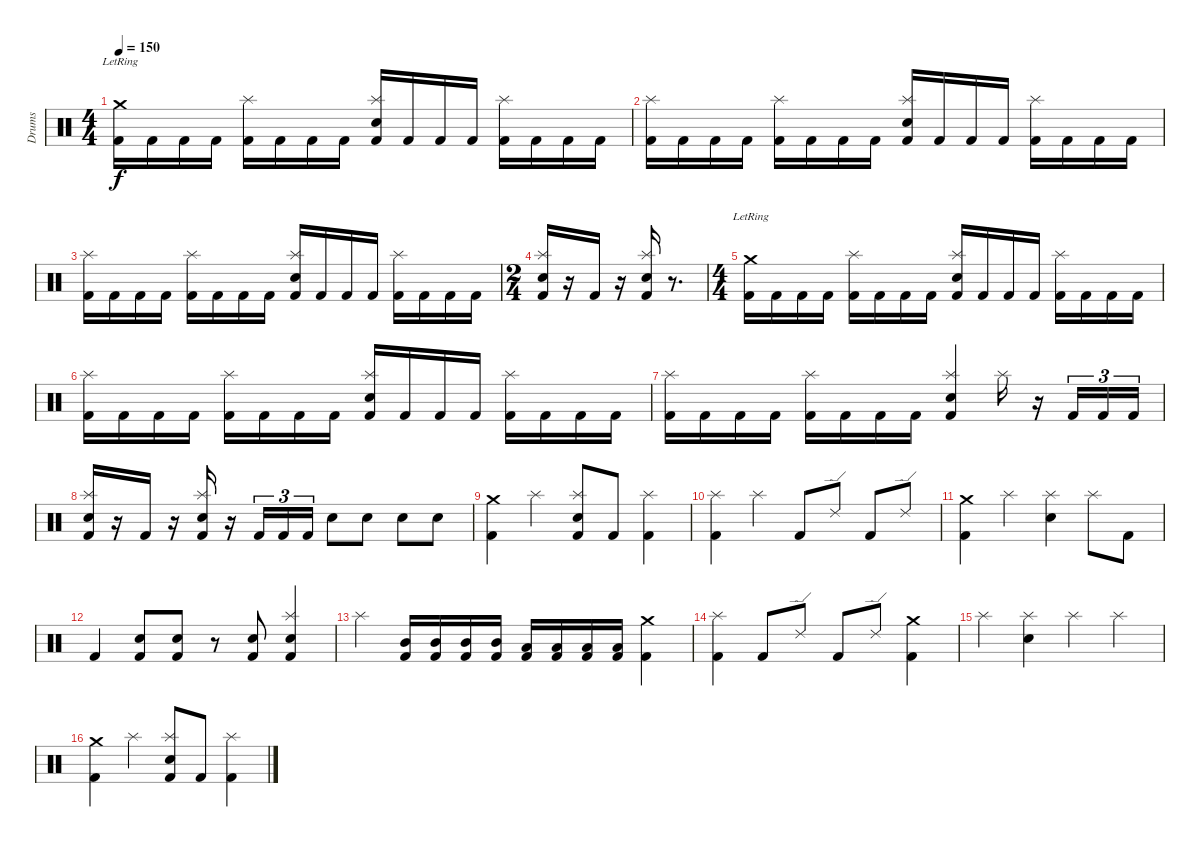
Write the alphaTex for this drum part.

\track ("Drums" "Drums") {instrument percussion}
\staff {score}
\articulation defaults
\ts (4 4)
\tempo 150
\clef neutral
\ks c
("Kick (hit) 2" "Crash medium (hit)"{lr}).16{dy f} "Kick (hit) 2".16 "Kick (hit) 2".16 "Kick (hit) 2".16 ("Kick (hit) 2" "Splash (hit)").16 "Kick (hit) 2".16 "Kick (hit) 2".16 "Kick (hit) 2".16 ("Kick (hit) 2" "Splash (hit)" "Snare (hit) 2").16 "Kick (hit) 2".16 "Kick (hit) 2".16 "Kick (hit) 2".16 ("Kick (hit) 2" "Splash (hit)").16 "Kick (hit) 2".16 "Kick (hit) 2".16 "Kick (hit) 2".16 |
("Kick (hit) 2" "Splash (hit)").16 "Kick (hit) 2".16 "Kick (hit) 2".16 "Kick (hit) 2".16 ("Kick (hit) 2" "Splash (hit)").16 "Kick (hit) 2".16 "Kick (hit) 2".16 "Kick (hit) 2".16 ("Kick (hit) 2" "Splash (hit)" "Snare (hit) 2").16 "Kick (hit) 2".16 "Kick (hit) 2".16 "Kick (hit) 2".16 ("Kick (hit) 2" "Splash (hit)").16 "Kick (hit) 2".16 "Kick (hit) 2".16 "Kick (hit) 2".16 |
("Kick (hit) 2" "Splash (hit)").16 "Kick (hit) 2".16 "Kick (hit) 2".16 "Kick (hit) 2".16 ("Kick (hit) 2" "Splash (hit)").16 "Kick (hit) 2".16 "Kick (hit) 2".16 "Kick (hit) 2".16 ("Kick (hit) 2" "Splash (hit)" "Snare (hit) 2").16 "Kick (hit) 2".16 "Kick (hit) 2".16 "Kick (hit) 2".16 ("Kick (hit) 2" "Splash (hit)").16 "Kick (hit) 2".16 "Kick (hit) 2".16 "Kick (hit) 2".16 |
\ts (2 4)
("Kick (hit) 2" "Splash (hit)" "Snare (hit) 2").16 r.16 "Kick (hit) 2".16 r.16 ("Kick (hit) 2" "Splash (hit)" "Snare (hit) 2").16 r.8{d} |
\ts (4 4)
("Kick (hit) 2" "Crash medium (hit)"{lr}).16 "Kick (hit) 2".16 "Kick (hit) 2".16 "Kick (hit) 2".16 ("Kick (hit) 2" "Splash (hit)").16 "Kick (hit) 2".16 "Kick (hit) 2".16 "Kick (hit) 2".16 ("Kick (hit) 2" "Splash (hit)" "Snare (hit) 2").16 "Kick (hit) 2".16 "Kick (hit) 2".16 "Kick (hit) 2".16 ("Kick (hit) 2" "Splash (hit)").16 "Kick (hit) 2".16 "Kick (hit) 2".16 "Kick (hit) 2".16 |
("Kick (hit) 2" "Splash (hit)").16 "Kick (hit) 2".16 "Kick (hit) 2".16 "Kick (hit) 2".16 ("Kick (hit) 2" "Splash (hit)").16 "Kick (hit) 2".16 "Kick (hit) 2".16 "Kick (hit) 2".16 ("Kick (hit) 2" "Splash (hit)" "Snare (hit) 2").16 "Kick (hit) 2".16 "Kick (hit) 2".16 "Kick (hit) 2".16 ("Kick (hit) 2" "Splash (hit)").16 "Kick (hit) 2".16 "Kick (hit) 2".16 "Kick (hit) 2".16 |
("Kick (hit) 2" "Splash (hit)").16 "Kick (hit) 2".16 "Kick (hit) 2".16 "Kick (hit) 2".16 ("Kick (hit) 2" "Splash (hit)").16 "Kick (hit) 2".16 "Kick (hit) 2".16 "Kick (hit) 2".16 ("Kick (hit) 2" "Splash (hit)" "Snare (hit) 2").4 "Splash (hit)".16 r.16 "Kick (hit) 2".16{tu (3 2)} "Kick (hit) 2".16{tu (3 2)} "Kick (hit) 2".16{tu (3 2)} |
("Kick (hit) 2" "Splash (hit)" "Snare (hit) 2").16 r.16 "Kick (hit) 2".16 r.16 ("Kick (hit) 2" "Splash (hit)" "Snare (hit) 2").16 r.16 "Kick (hit) 2".16{tu (3 2)} "Kick (hit) 2".16{tu (3 2)} "Kick (hit) 2".16{tu (3 2)} "Electric Snare (hit)".8 "Electric Snare (hit)".8 "Electric Snare (hit)".8 "Electric Snare (hit)".8 |
("Kick (hit) 2" "Crash medium (hit)").4 "Splash (hit)".4 ("Kick (hit) 2" "Splash (hit)" "Snare (hit) 2").8 "Kick (hit) 2".8 ("Kick (hit) 2" "Splash (hit)").4 |
("Kick (hit) 2" "Splash (hit)").4 "Splash (hit)".4 "Kick (hit) 2".8 "Ride (edge) 2".8 "Kick (hit) 2".8 "Ride (edge) 2".8 |
("Kick (hit) 2" "Crash medium (hit)").4 "Splash (hit)".4 ("Splash (hit)" "Snare (hit) 2").4 "Splash (hit)".8 "Kick (hit) 2".8 |
"Kick (hit) 2".4 ("Kick (hit) 2" "Snare (hit) 2").8 ("Kick (hit) 2" "Snare (hit) 2").8 r.8 ("Kick (hit) 2" "Snare (hit) 2").8 ("Kick (hit) 2" "Snare (hit) 2" "Splash (hit)").4 |
"Splash (hit)".4 ("Kick (hit) 2" "Mid Tom (hit)").16 ("Kick (hit) 2" "Mid Tom (hit)").16 ("Kick (hit) 2" "Mid Tom (hit)").16 ("Kick (hit) 2" "Mid Tom (hit)").16 ("Kick (hit) 2" "Low Tom (hit)").16 ("Kick (hit) 2" "Low Tom (hit)").16 ("Kick (hit) 2" "Low Tom (hit)").16 ("Kick (hit) 2" "Low Tom (hit)").16 ("Kick (hit) 2" "Crash medium (hit)").4 |
("Kick (hit) 2" "Splash (hit)").4 "Kick (hit) 2".8 "Ride (edge) 2".8 "Kick (hit) 2".8 "Ride (edge) 2".8 ("Kick (hit) 2" "Crash medium (hit)").4 |
"Splash (hit)".4 ("Snare (hit) 2" "Splash (hit)").4 "Splash (hit)".4 "Splash (hit)".4 |
("Kick (hit) 2" "Crash medium (hit)").4 "Splash (hit)".4 ("Kick (hit) 2" "Splash (hit)" "Snare (hit) 2").8 "Kick (hit) 2".8 ("Kick (hit) 2" "Splash (hit)").4
